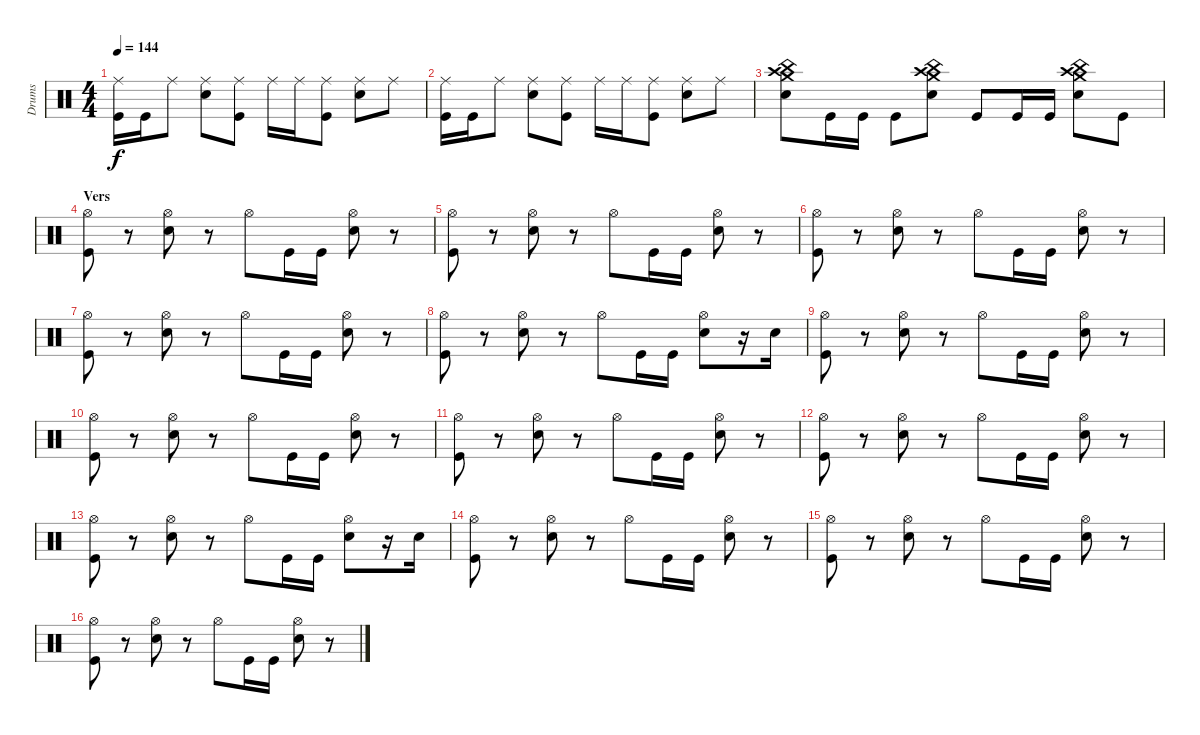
\track ("Drums" "Drums") {instrument percussion}
\staff {score}
\articulation defaults
\ts (4 4)
\tempo 144
\clef neutral
\ks c
("Ride (middle)" "Kick (hit)").16{dy f} "Kick (hit)".16 "Ride (middle)".8 ("Ride (middle)" "Snare (hit) 2").8 ("Ride (middle)" "Kick (hit)").8 "Ride (middle)".16 "Ride (middle)".16 ("Ride (middle)" "Kick (hit)").8 ("Ride (middle)" "Snare (hit) 2").8 "Ride (middle)".8 |
("Ride (middle)" "Kick (hit)").16 "Kick (hit)".16 "Ride (middle)".8 ("Ride (middle)" "Snare (hit) 2").8 ("Ride (middle)" "Kick (hit)").8 "Ride (middle)".16 "Ride (middle)".16 ("Ride (middle)" "Kick (hit)").8 ("Ride (middle)" "Snare (hit) 2").8 "Ride (middle)".8 |
("China (hit)" "Crash medium (hit)" "Crash high (hit)" "Snare (hit) 2").8 "Kick (hit)".16 "Kick (hit)".16 "Kick (hit)".8 ("China (hit)" "Crash medium (hit)" "Crash high (hit)" "Snare (hit) 2").8 "Kick (hit)".8 "Kick (hit)".16 "Kick (hit)".16 ("China (hit)" "Crash medium (hit)" "Crash high (hit)" "Snare (hit) 2").8 "Kick (hit)".8 |
\section ("" "Vers")
("Hi-Hat (open)" "Kick (hit)").8 r.8 ("Hi-Hat (open)" "Snare (hit) 2").8 r.8 "Hi-Hat (open)".8 "Kick (hit)".16 "Kick (hit)".16 ("Hi-Hat (open)" "Snare (hit) 2").8 r.8 |
("Hi-Hat (open)" "Kick (hit)").8 r.8 ("Hi-Hat (open)" "Snare (hit) 2").8 r.8 "Hi-Hat (open)".8 "Kick (hit)".16 "Kick (hit)".16 ("Hi-Hat (open)" "Snare (hit) 2").8 r.8 |
("Hi-Hat (open)" "Kick (hit)").8 r.8 ("Hi-Hat (open)" "Snare (hit) 2").8 r.8 "Hi-Hat (open)".8 "Kick (hit)".16 "Kick (hit)".16 ("Hi-Hat (open)" "Snare (hit) 2").8 r.8 |
("Hi-Hat (open)" "Kick (hit)").8 r.8 ("Hi-Hat (open)" "Snare (hit) 2").8 r.8 "Hi-Hat (open)".8 "Kick (hit)".16 "Kick (hit)".16 ("Hi-Hat (open)" "Snare (hit) 2").8 r.8 |
("Hi-Hat (open)" "Kick (hit)").8 r.8 ("Hi-Hat (open)" "Snare (hit) 2").8 r.8 "Hi-Hat (open)".8 "Kick (hit)".16 "Kick (hit)".16 ("Hi-Hat (open)" "Snare (hit) 2").8 r.16 "Snare (hit) 2".16 |
("Hi-Hat (open)" "Kick (hit)").8 r.8 ("Hi-Hat (open)" "Snare (hit) 2").8 r.8 "Hi-Hat (open)".8 "Kick (hit)".16 "Kick (hit)".16 ("Hi-Hat (open)" "Snare (hit) 2").8 r.8 |
("Hi-Hat (open)" "Kick (hit)").8 r.8 ("Hi-Hat (open)" "Snare (hit) 2").8 r.8 "Hi-Hat (open)".8 "Kick (hit)".16 "Kick (hit)".16 ("Hi-Hat (open)" "Snare (hit) 2").8 r.8 |
("Hi-Hat (open)" "Kick (hit)").8 r.8 ("Hi-Hat (open)" "Snare (hit) 2").8 r.8 "Hi-Hat (open)".8 "Kick (hit)".16 "Kick (hit)".16 ("Hi-Hat (open)" "Snare (hit) 2").8 r.8 |
("Hi-Hat (open)" "Kick (hit)").8 r.8 ("Hi-Hat (open)" "Snare (hit) 2").8 r.8 "Hi-Hat (open)".8 "Kick (hit)".16 "Kick (hit)".16 ("Hi-Hat (open)" "Snare (hit) 2").8 r.8 |
("Hi-Hat (open)" "Kick (hit)").8 r.8 ("Hi-Hat (open)" "Snare (hit) 2").8 r.8 "Hi-Hat (open)".8 "Kick (hit)".16 "Kick (hit)".16 ("Hi-Hat (open)" "Snare (hit) 2").8 r.16 "Snare (hit) 2".16 |
("Hi-Hat (open)" "Kick (hit)").8 r.8 ("Hi-Hat (open)" "Snare (hit) 2").8 r.8 "Hi-Hat (open)".8 "Kick (hit)".16 "Kick (hit)".16 ("Hi-Hat (open)" "Snare (hit) 2").8 r.8 |
("Hi-Hat (open)" "Kick (hit)").8 r.8 ("Hi-Hat (open)" "Snare (hit) 2").8 r.8 "Hi-Hat (open)".8 "Kick (hit)".16 "Kick (hit)".16 ("Hi-Hat (open)" "Snare (hit) 2").8 r.8 |
("Hi-Hat (open)" "Kick (hit)").8 r.8 ("Hi-Hat (open)" "Snare (hit) 2").8 r.8 "Hi-Hat (open)".8 "Kick (hit)".16 "Kick (hit)".16 ("Hi-Hat (open)" "Snare (hit) 2").8 r.8
